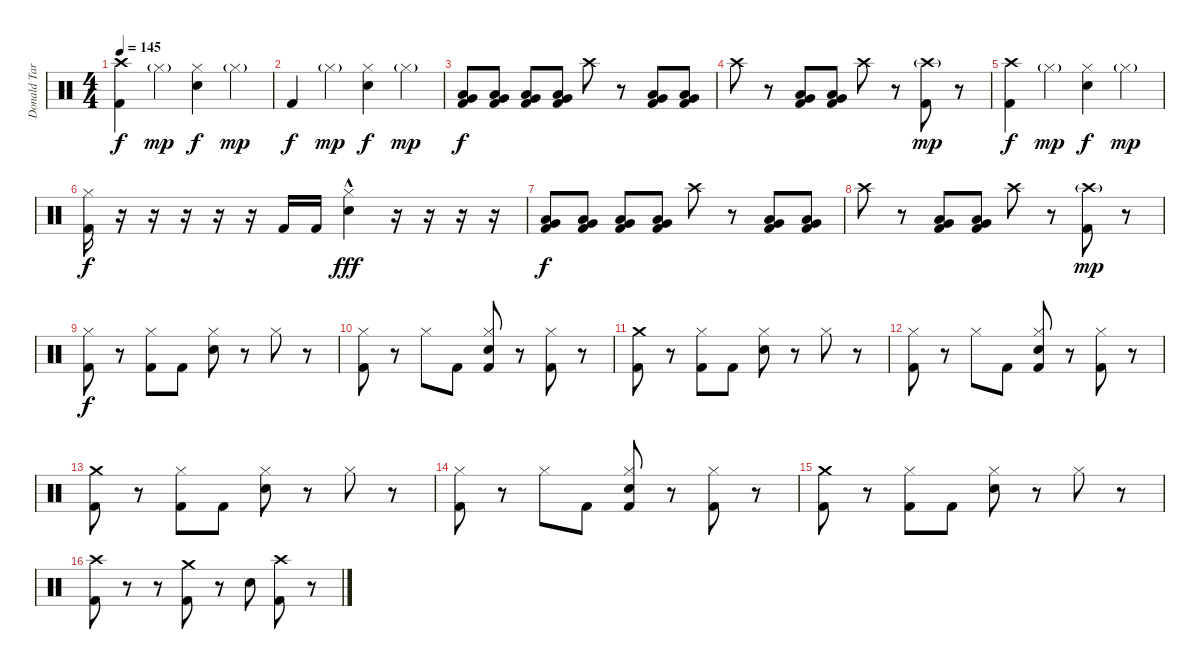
\track ("Donald Tardy" "Donald Tar") {instrument percussion}
\staff {score}
\articulation defaults
\ts (4 4)
\tempo 145
\clef neutral
\ks c
("Crash high (hit)" "Kick (hit) 2").4{dy f} "Hi-Hat (closed)"{g}.4{dy mp} ("Hi-Hat (closed)" "Electric Snare (hit)").4{dy f} "Hi-Hat (closed)"{g}.4{dy mp} |
"Kick (hit) 2".4{dy f} "Hi-Hat (closed)"{g}.4{dy mp} ("Hi-Hat (closed)" "Electric Snare (hit)").4{dy f} "Hi-Hat (closed)"{g}.4{dy mp} |
("Very Low Tom (hit)" "Low Floor Tom (hit)" "Kick (hit) 2").8{dy f} ("Very Low Tom (hit)" "Low Floor Tom (hit)" "Kick (hit) 2").8 ("Very Low Tom (hit)" "Low Floor Tom (hit)" "Kick (hit) 2").8 ("Very Low Tom (hit)" "Low Floor Tom (hit)" "Kick (hit) 2").8 "Crash high (hit)".8 r.8 ("Very Low Tom (hit)" "Low Floor Tom (hit)" "Kick (hit) 2").8 ("Very Low Tom (hit)" "Low Floor Tom (hit)" "Kick (hit) 2").8 |
"Crash high (hit)".8 r.8 ("Very Low Tom (hit)" "Low Floor Tom (hit)" "Kick (hit) 2").8 ("Very Low Tom (hit)" "Low Floor Tom (hit)" "Kick (hit) 2").8 "Crash high (hit)".8 r.8 ("Crash high (hit)"{g} "Kick (hit) 2").8{dy mp} r.8 |
("Crash high (hit)" "Kick (hit) 2").4{dy f} "Hi-Hat (closed)"{g}.4{dy mp} ("Hi-Hat (closed)" "Electric Snare (hit)").4{dy f} "Hi-Hat (closed)"{g}.4{dy mp} |
("Hi-Hat (closed)" "Kick (hit) 2").16{dy f} r.16 r.16 r.16 r.16 r.16 "Kick (hit) 2".16 "Kick (hit) 2".16 ("Hi-Hat (closed)"{hac} "Electric Snare (hit)").4{dy fff} r.16 r.16 r.16 r.16 |
("Very Low Tom (hit)" "Low Floor Tom (hit)" "Kick (hit) 2").8{dy f} ("Very Low Tom (hit)" "Low Floor Tom (hit)" "Kick (hit) 2").8 ("Very Low Tom (hit)" "Low Floor Tom (hit)" "Kick (hit) 2").8 ("Very Low Tom (hit)" "Low Floor Tom (hit)" "Kick (hit) 2").8 "Crash high (hit)".8 r.8 ("Very Low Tom (hit)" "Low Floor Tom (hit)" "Kick (hit) 2").8 ("Very Low Tom (hit)" "Low Floor Tom (hit)" "Kick (hit) 2").8 |
"Crash high (hit)".8 r.8 ("Very Low Tom (hit)" "Low Floor Tom (hit)" "Kick (hit) 2").8 ("Very Low Tom (hit)" "Low Floor Tom (hit)" "Kick (hit) 2").8 "Crash high (hit)".8 r.8 ("Crash high (hit)"{g} "Kick (hit) 2").8{dy mp} r.8 |
("Hi-Hat (closed)" "Kick (hit) 2").8{dy f} r.8 ("Hi-Hat (closed)" "Kick (hit) 2").8 "Kick (hit) 2".8 ("Hi-Hat (closed)" "Electric Snare (hit)").8 r.8 "Hi-Hat (closed)".8 r.8 |
("Hi-Hat (closed)" "Kick (hit) 2").8 r.8 "Hi-Hat (closed)".8 "Kick (hit) 2".8 ("Hi-Hat (closed)" "Electric Snare (hit)" "Kick (hit) 2").8 r.8 ("Hi-Hat (closed)" "Kick (hit) 2").8 r.8 |
("Crash medium (hit)" "Kick (hit) 2").8 r.8 ("Hi-Hat (closed)" "Kick (hit) 2").8 "Kick (hit) 2".8 ("Hi-Hat (closed)" "Electric Snare (hit)").8 r.8 "Hi-Hat (closed)".8 r.8 |
("Hi-Hat (closed)" "Kick (hit) 2").8 r.8 "Hi-Hat (closed)".8 "Kick (hit) 2".8 ("Hi-Hat (closed)" "Electric Snare (hit)" "Kick (hit) 2").8 r.8 ("Hi-Hat (closed)" "Kick (hit) 2").8 r.8 |
("Crash medium (hit)" "Kick (hit) 2").8 r.8 ("Hi-Hat (closed)" "Kick (hit) 2").8 "Kick (hit) 2".8 ("Hi-Hat (closed)" "Electric Snare (hit)").8 r.8 "Hi-Hat (closed)".8 r.8 |
("Hi-Hat (closed)" "Kick (hit) 2").8 r.8 "Hi-Hat (closed)".8 "Kick (hit) 2".8 ("Hi-Hat (closed)" "Electric Snare (hit)" "Kick (hit) 2").8 r.8 ("Hi-Hat (closed)" "Kick (hit) 2").8 r.8 |
("Crash medium (hit)" "Kick (hit) 2").8 r.8 ("Hi-Hat (closed)" "Kick (hit) 2").8 "Kick (hit) 2".8 ("Hi-Hat (closed)" "Electric Snare (hit)").8 r.8 "Hi-Hat (closed)".8 r.8 |
("Crash high (hit)" "Kick (hit) 2").8 r.8 r.8 ("Crash medium (hit)" "Kick (hit) 2").8 r.8 "Electric Snare (hit)".8 ("Crash high (hit)" "Kick (hit) 2").8 r.8
